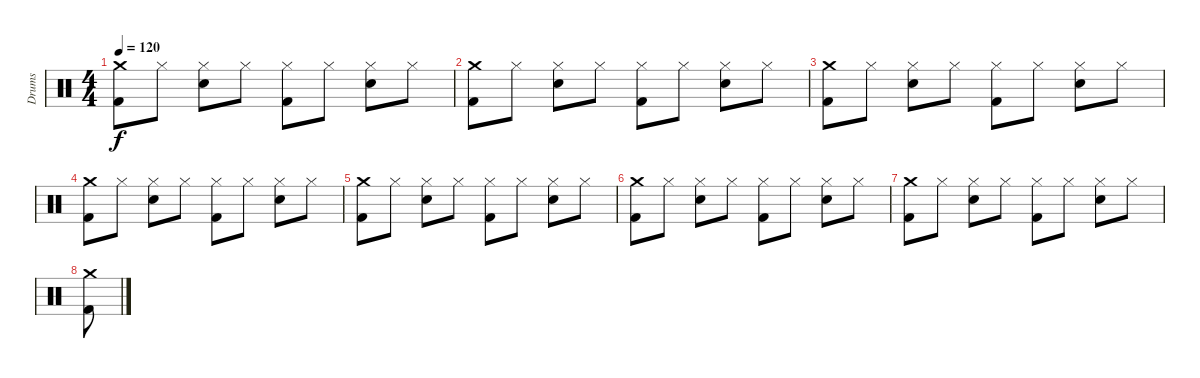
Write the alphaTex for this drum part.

\track ("Drums" "Drums") {instrument percussion}
\staff {score}
\articulation defaults
\ts (4 4)
\tempo 120
\clef neutral
\ks c
("Crash medium (hit)" "Kick (hit) 2").8{dy f} "Hi-Hat (closed)".8 ("Hi-Hat (closed)" "Snare (hit) 2").8 "Hi-Hat (closed)".8 ("Hi-Hat (closed)" "Kick (hit) 2").8 "Hi-Hat (closed)".8 ("Hi-Hat (closed)" "Snare (hit) 2").8 "Hi-Hat (closed)".8 |
("Crash medium (hit)" "Kick (hit) 2").8 "Hi-Hat (closed)".8 ("Hi-Hat (closed)" "Snare (hit) 2").8 "Hi-Hat (closed)".8 ("Hi-Hat (closed)" "Kick (hit) 2").8 "Hi-Hat (closed)".8 ("Hi-Hat (closed)" "Snare (hit) 2").8 "Hi-Hat (closed)".8 |
("Crash medium (hit)" "Kick (hit) 2").8 "Hi-Hat (closed)".8 ("Hi-Hat (closed)" "Snare (hit) 2").8 "Hi-Hat (closed)".8 ("Hi-Hat (closed)" "Kick (hit) 2").8 "Hi-Hat (closed)".8 ("Hi-Hat (closed)" "Snare (hit) 2").8 "Hi-Hat (closed)".8 |
("Crash medium (hit)" "Kick (hit) 2").8 "Hi-Hat (closed)".8 ("Hi-Hat (closed)" "Snare (hit) 2").8 "Hi-Hat (closed)".8 ("Hi-Hat (closed)" "Kick (hit) 2").8 "Hi-Hat (closed)".8 ("Hi-Hat (closed)" "Snare (hit) 2").8 "Hi-Hat (closed)".8 |
("Crash medium (hit)" "Kick (hit) 2").8 "Hi-Hat (closed)".8 ("Hi-Hat (closed)" "Snare (hit) 2").8 "Hi-Hat (closed)".8 ("Hi-Hat (closed)" "Kick (hit) 2").8 "Hi-Hat (closed)".8 ("Hi-Hat (closed)" "Snare (hit) 2").8 "Hi-Hat (closed)".8 |
("Crash medium (hit)" "Kick (hit) 2").8 "Hi-Hat (closed)".8 ("Hi-Hat (closed)" "Snare (hit) 2").8 "Hi-Hat (closed)".8 ("Hi-Hat (closed)" "Kick (hit) 2").8 "Hi-Hat (closed)".8 ("Hi-Hat (closed)" "Snare (hit) 2").8 "Hi-Hat (closed)".8 |
("Crash medium (hit)" "Kick (hit) 2").8 "Hi-Hat (closed)".8 ("Hi-Hat (closed)" "Snare (hit) 2").8 "Hi-Hat (closed)".8 ("Hi-Hat (closed)" "Kick (hit) 2").8 "Hi-Hat (closed)".8 ("Hi-Hat (closed)" "Snare (hit) 2").8 "Hi-Hat (closed)".8 |
("Crash medium (hit)" "Kick (hit) 2").8
